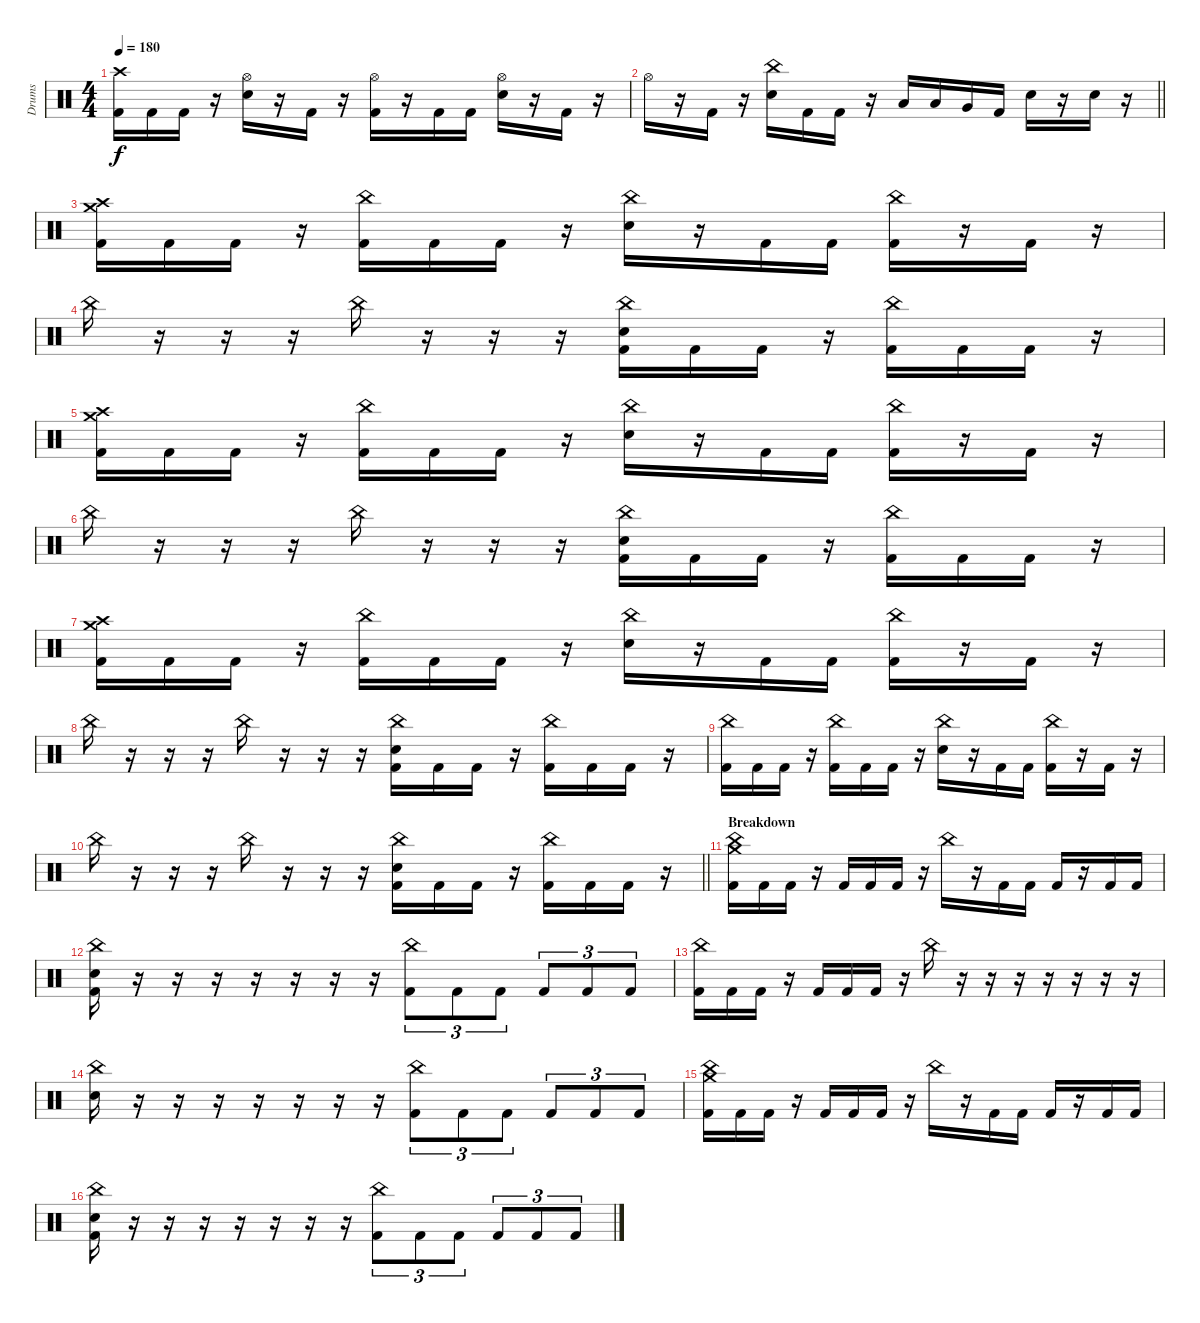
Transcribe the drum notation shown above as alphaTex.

\track ("Drums" "Drums") {instrument percussion}
\staff {score}
\articulation defaults
\ts (4 4)
\tempo 180
\clef neutral
\ks c
("Crash high (hit)" "Kick (hit) 2").16{dy f} "Kick (hit) 2".16 "Kick (hit) 2".16 r.16 ("Hi-Hat (open)" "Electric Snare (hit)").16 r.16 "Kick (hit) 2".16 r.16 ("Hi-Hat (open)" "Kick (hit) 2").16 r.16 "Kick (hit) 2".16 "Kick (hit) 2".16 ("Hi-Hat (open)" "Electric Snare (hit)").16 r.16 "Kick (hit) 2".16 r.16 |
\barLineRight lightlight "Hi-Hat (open)".16
r.16 "Kick (hit) 2".16 r.16 ("China (hit)" "Electric Snare (hit)").16 "Kick (hit) 2".16 "Kick (hit) 2".16 r.16 "Low Floor Tom (hit)".16 "Low Floor Tom (hit)".16 "Very Low Tom (hit)".16 "Kick (hit) 2".16 "Electric Snare (hit)".16 r.16 "Electric Snare (hit)".16 r.16 |
("Crash medium (hit)" "Crash high (hit)" "Kick (hit) 2").16 "Kick (hit) 2".16 "Kick (hit) 2".16 r.16 ("China (hit)" "Kick (hit) 2").16 "Kick (hit) 2".16 "Kick (hit) 2".16 r.16 ("China (hit)" "Electric Snare (hit)").16 r.16 "Kick (hit) 2".16 "Kick (hit) 2".16 ("China (hit)" "Kick (hit) 2").16 r.16 "Kick (hit) 2".16 r.16 |
"China (hit)".16 r.16 r.16 r.16 "China (hit)".16 r.16 r.16 r.16 ("China (hit)" "Electric Snare (hit)" "Kick (hit) 2").16 "Kick (hit) 2".16 "Kick (hit) 2".16 r.16 ("China (hit)" "Kick (hit) 2").16 "Kick (hit) 2".16 "Kick (hit) 2".16 r.16 |
("Crash medium (hit)" "Crash high (hit)" "Kick (hit) 2").16 "Kick (hit) 2".16 "Kick (hit) 2".16 r.16 ("China (hit)" "Kick (hit) 2").16 "Kick (hit) 2".16 "Kick (hit) 2".16 r.16 ("China (hit)" "Electric Snare (hit)").16 r.16 "Kick (hit) 2".16 "Kick (hit) 2".16 ("China (hit)" "Kick (hit) 2").16 r.16 "Kick (hit) 2".16 r.16 |
"China (hit)".16 r.16 r.16 r.16 "China (hit)".16 r.16 r.16 r.16 ("China (hit)" "Electric Snare (hit)" "Kick (hit) 2").16 "Kick (hit) 2".16 "Kick (hit) 2".16 r.16 ("China (hit)" "Kick (hit) 2").16 "Kick (hit) 2".16 "Kick (hit) 2".16 r.16 |
("Crash medium (hit)" "Crash high (hit)" "Kick (hit) 2").16 "Kick (hit) 2".16 "Kick (hit) 2".16 r.16 ("China (hit)" "Kick (hit) 2").16 "Kick (hit) 2".16 "Kick (hit) 2".16 r.16 ("China (hit)" "Electric Snare (hit)").16 r.16 "Kick (hit) 2".16 "Kick (hit) 2".16 ("China (hit)" "Kick (hit) 2").16 r.16 "Kick (hit) 2".16 r.16 |
"China (hit)".16 r.16 r.16 r.16 "China (hit)".16 r.16 r.16 r.16 ("China (hit)" "Electric Snare (hit)" "Kick (hit) 2").16 "Kick (hit) 2".16 "Kick (hit) 2".16 r.16 ("China (hit)" "Kick (hit) 2").16 "Kick (hit) 2".16 "Kick (hit) 2".16 r.16 |
("China (hit)" "Kick (hit) 2").16 "Kick (hit) 2".16 "Kick (hit) 2".16 r.16 ("China (hit)" "Kick (hit) 2").16 "Kick (hit) 2".16 "Kick (hit) 2".16 r.16 ("China (hit)" "Electric Snare (hit)").16 r.16 "Kick (hit) 2".16 "Kick (hit) 2".16 ("China (hit)" "Kick (hit) 2").16 r.16 "Kick (hit) 2".16 r.16 |
\barLineRight lightlight "China (hit)".16
r.16 r.16 r.16 "China (hit)".16 r.16 r.16 r.16 ("China (hit)" "Electric Snare (hit)" "Kick (hit) 2").16 "Kick (hit) 2".16 "Kick (hit) 2".16 r.16 ("China (hit)" "Kick (hit) 2").16 "Kick (hit) 2".16 "Kick (hit) 2".16 r.16 |
\section ("" "Breakdown")
("Crash medium (hit)" "China (hit)" "Kick (hit) 2").16 "Kick (hit) 2".16 "Kick (hit) 2".16 r.16 "Kick (hit) 2".16 "Kick (hit) 2".16 "Kick (hit) 2".16 r.16 "China (hit)".16 r.16 "Kick (hit) 2".16 "Kick (hit) 2".16 "Kick (hit) 2".16 r.16 "Kick (hit) 2".16 "Kick (hit) 2".16 |
("China (hit)" "Electric Snare (hit)" "Kick (hit) 2").16 r.16 r.16 r.16 r.16 r.16 r.16 r.16 ("China (hit)" "Kick (hit) 2").8{tu (3 2)} "Kick (hit) 2".8{tu (3 2)} "Kick (hit) 2".8{tu (3 2)} "Kick (hit) 2".8{tu (3 2)} "Kick (hit) 2".8{tu (3 2)} "Kick (hit) 2".8{tu (3 2)} |
("China (hit)" "Kick (hit) 2").16 "Kick (hit) 2".16 "Kick (hit) 2".16 r.16 "Kick (hit) 2".16 "Kick (hit) 2".16 "Kick (hit) 2".16 r.16 "China (hit)".16 r.16 r.16 r.16 r.16 r.16 r.16 r.16 |
("China (hit)" "Electric Snare (hit)").16 r.16 r.16 r.16 r.16 r.16 r.16 r.16 ("China (hit)" "Kick (hit) 2").8{tu (3 2)} "Kick (hit) 2".8{tu (3 2)} "Kick (hit) 2".8{tu (3 2)} "Kick (hit) 2".8{tu (3 2)} "Kick (hit) 2".8{tu (3 2)} "Kick (hit) 2".8{tu (3 2)} |
("Crash medium (hit)" "China (hit)" "Kick (hit) 2").16 "Kick (hit) 2".16 "Kick (hit) 2".16 r.16 "Kick (hit) 2".16 "Kick (hit) 2".16 "Kick (hit) 2".16 r.16 "China (hit)".16 r.16 "Kick (hit) 2".16 "Kick (hit) 2".16 "Kick (hit) 2".16 r.16 "Kick (hit) 2".16 "Kick (hit) 2".16 |
("China (hit)" "Electric Snare (hit)" "Kick (hit) 2").16 r.16 r.16 r.16 r.16 r.16 r.16 r.16 ("China (hit)" "Kick (hit) 2").8{tu (3 2)} "Kick (hit) 2".8{tu (3 2)} "Kick (hit) 2".8{tu (3 2)} "Kick (hit) 2".8{tu (3 2)} "Kick (hit) 2".8{tu (3 2)} "Kick (hit) 2".8{tu (3 2)}
